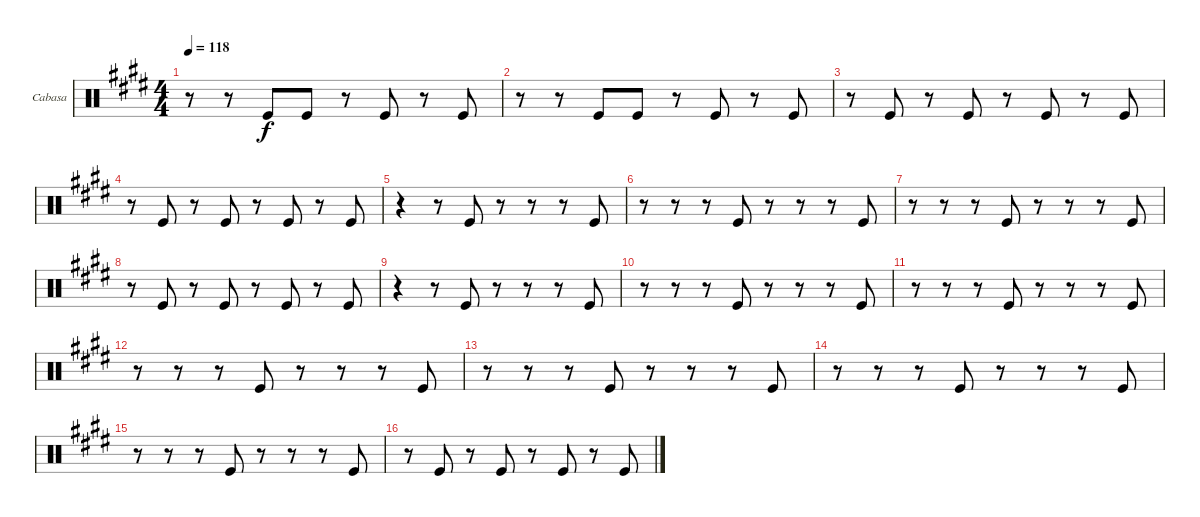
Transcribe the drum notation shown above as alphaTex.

\bracketExtendMode groupsimilarinstruments
\firstSystemTrackNameOrientation horizontal
\otherSystemsTrackNameOrientation horizontal
\track ("Cabasa" "Cabasa") {instrument percussion}
\staff {score}
\articulation defaults
\ts (4 4)
\tempo 118
\clef neutral
\ks e
r.8{dy f} r.8 "Kick (hit)".8 "Kick (hit)".8 r.8 "Kick (hit)".8 r.8 "Kick (hit)".8 |
r.8 r.8 "Kick (hit)".8 "Kick (hit)".8 r.8 "Kick (hit)".8 r.8 "Kick (hit)".8 |
r.8 "Kick (hit)".8 r.8 "Kick (hit)".8 r.8 "Kick (hit)".8 r.8 "Kick (hit)".8 |
r.8 "Kick (hit)".8 r.8 "Kick (hit)".8 r.8 "Kick (hit)".8 r.8 "Kick (hit)".8 |
r.4 r.8 "Kick (hit)".8 r.8 r.8 r.8 "Kick (hit)".8 |
r.8 r.8 r.8 "Kick (hit)".8 r.8 r.8 r.8 "Kick (hit)".8 |
r.8 r.8 r.8 "Kick (hit)".8 r.8 r.8 r.8 "Kick (hit)".8 |
r.8 "Kick (hit)".8 r.8 "Kick (hit)".8 r.8 "Kick (hit)".8 r.8 "Kick (hit)".8 |
r.4 r.8 "Kick (hit)".8 r.8 r.8 r.8 "Kick (hit)".8 |
r.8 r.8 r.8 "Kick (hit)".8 r.8 r.8 r.8 "Kick (hit)".8 |
r.8 r.8 r.8 "Kick (hit)".8 r.8 r.8 r.8 "Kick (hit)".8 |
r.8 r.8 r.8 "Kick (hit)".8 r.8 r.8 r.8 "Kick (hit)".8 |
r.8 r.8 r.8 "Kick (hit)".8 r.8 r.8 r.8 "Kick (hit)".8 |
r.8 r.8 r.8 "Kick (hit)".8 r.8 r.8 r.8 "Kick (hit)".8 |
r.8 r.8 r.8 "Kick (hit)".8 r.8 r.8 r.8 "Kick (hit)".8 |
r.8 "Kick (hit)".8 r.8 "Kick (hit)".8 r.8 "Kick (hit)".8 r.8 "Kick (hit)".8
